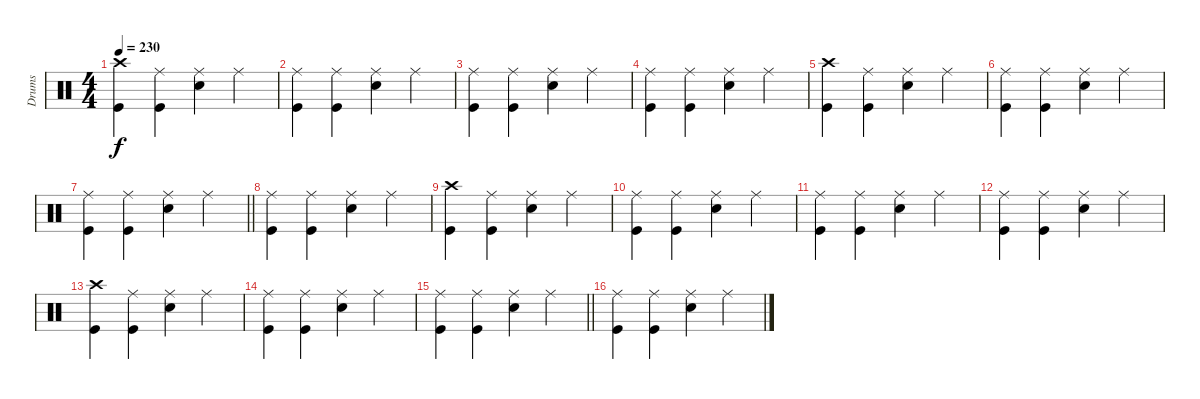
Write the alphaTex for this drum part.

\track ("Drums" "Drums") {instrument percussion}
\staff {score}
\articulation defaults
\ts (4 4)
\tempo 230
\clef neutral
\ks c
("Crash high (hit)" "Kick (hit)").4{dy f} ("Ride (middle)" "Kick (hit)").4 ("Ride (middle)" "Snare (hit) 2").4 "Ride (middle)".4 |
("Ride (middle)" "Kick (hit)").4 ("Ride (middle)" "Kick (hit)").4 ("Ride (middle)" "Snare (hit) 2").4 "Ride (middle)".4 |
("Ride (middle)" "Kick (hit)").4 ("Ride (middle)" "Kick (hit)").4 ("Ride (middle)" "Snare (hit) 2").4 "Ride (middle)".4 |
("Ride (middle)" "Kick (hit)").4 ("Ride (middle)" "Kick (hit)").4 ("Ride (middle)" "Snare (hit) 2").4 "Ride (middle)".4 |
("Crash high (hit)" "Kick (hit)").4 ("Ride (middle)" "Kick (hit)").4 ("Ride (middle)" "Snare (hit) 2").4 "Ride (middle)".4 |
("Ride (middle)" "Kick (hit)").4 ("Ride (middle)" "Kick (hit)").4 ("Ride (middle)" "Snare (hit) 2").4 "Ride (middle)".4 |
\barLineRight lightlight
("Ride (middle)" "Kick (hit)").4 ("Ride (middle)" "Kick (hit)").4 ("Ride (middle)" "Snare (hit) 2").4 "Ride (middle)".4 |
("Ride (middle)" "Kick (hit)").4 ("Ride (middle)" "Kick (hit)").4 ("Ride (middle)" "Snare (hit) 2").4 "Ride (middle)".4 |
("Crash high (hit)" "Kick (hit)").4 ("Ride (middle)" "Kick (hit)").4 ("Ride (middle)" "Snare (hit) 2").4 "Ride (middle)".4 |
("Ride (middle)" "Kick (hit)").4 ("Ride (middle)" "Kick (hit)").4 ("Ride (middle)" "Snare (hit) 2").4 "Ride (middle)".4 |
("Ride (middle)" "Kick (hit)").4 ("Ride (middle)" "Kick (hit)").4 ("Ride (middle)" "Snare (hit) 2").4 "Ride (middle)".4 |
("Ride (middle)" "Kick (hit)").4 ("Ride (middle)" "Kick (hit)").4 ("Ride (middle)" "Snare (hit) 2").4 "Ride (middle)".4 |
("Crash high (hit)" "Kick (hit)").4 ("Ride (middle)" "Kick (hit)").4 ("Ride (middle)" "Snare (hit) 2").4 "Ride (middle)".4 |
("Ride (middle)" "Kick (hit)").4 ("Ride (middle)" "Kick (hit)").4 ("Ride (middle)" "Snare (hit) 2").4 "Ride (middle)".4 |
\barLineRight lightlight
("Ride (middle)" "Kick (hit)").4 ("Ride (middle)" "Kick (hit)").4 ("Ride (middle)" "Snare (hit) 2").4 "Ride (middle)".4 |
("Ride (middle)" "Kick (hit)").4 ("Ride (middle)" "Kick (hit)").4 ("Ride (middle)" "Snare (hit) 2").4 "Ride (middle)".4
